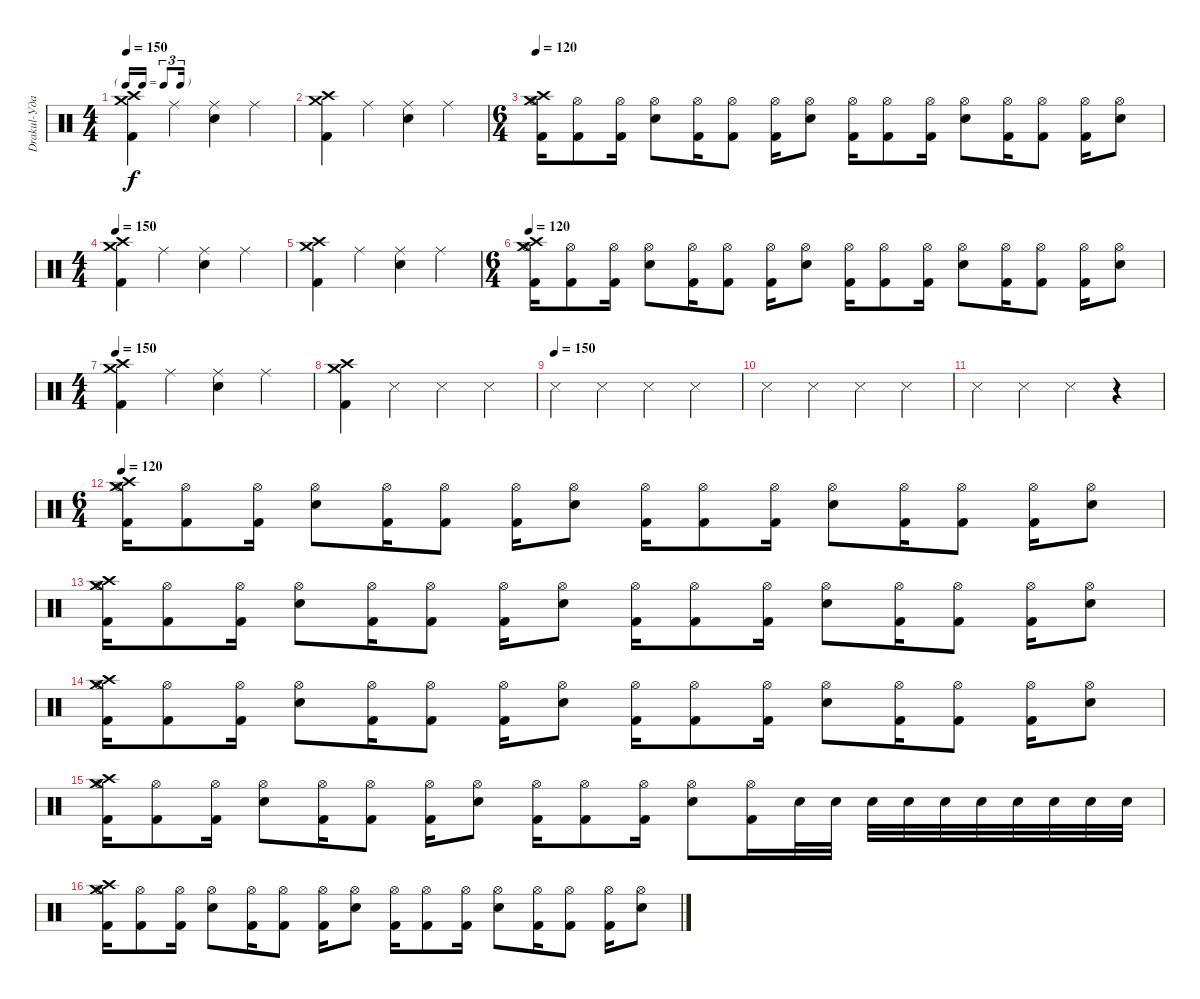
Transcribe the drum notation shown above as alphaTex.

\track ("Drakul-Ударные " "Drakul-Уда") {instrument percussion}
\staff {score}
\articulation defaults
\ts (4 4)
\tf triplet16th
\tempo 150
\clef neutral
\ks c
("Kick (hit) 2" "Crash high (hit)" "Crash medium (hit)").4{dy f} "Ride (middle)".4 ("Electric Snare (hit)" "Ride (middle)").4 "Ride (middle)".4 |
("Kick (hit) 2" "Crash high (hit)" "Crash medium (hit)").4 "Ride (middle)".4 ("Electric Snare (hit)" "Ride (middle)").4 "Ride (middle)".4 |
\ts (6 4)
\tempo 120
("Kick (hit) 2" "Hi-Hat (open)" "Crash high (hit)" "Crash medium (hit)").16 ("Kick (hit) 2" "Hi-Hat (open)").8 ("Kick (hit) 2" "Hi-Hat (open)").16 ("Electric Snare (hit)" "Hi-Hat (open)").8 ("Kick (hit) 2" "Hi-Hat (open)").16 ("Kick (hit) 2" "Hi-Hat (open)").8 ("Kick (hit) 2" "Hi-Hat (open)").16 ("Electric Snare (hit)" "Hi-Hat (open)").8 ("Kick (hit) 2" "Hi-Hat (open)").16 ("Kick (hit) 2" "Hi-Hat (open)").8 ("Kick (hit) 2" "Hi-Hat (open)").16 ("Electric Snare (hit)" "Hi-Hat (open)").8 ("Kick (hit) 2" "Hi-Hat (open)").16 ("Kick (hit) 2" "Hi-Hat (open)").8 ("Kick (hit) 2" "Hi-Hat (open)").16 ("Electric Snare (hit)" "Hi-Hat (open)").8 |
\ts (4 4)
\tempo 150
("Kick (hit) 2" "Crash high (hit)" "Crash medium (hit)").4 "Ride (middle)".4 ("Electric Snare (hit)" "Ride (middle)").4 "Ride (middle)".4 |
("Kick (hit) 2" "Crash high (hit)" "Crash medium (hit)").4 "Ride (middle)".4 ("Electric Snare (hit)" "Ride (middle)").4 "Ride (middle)".4 |
\ts (6 4)
\tempo 120
("Kick (hit) 2" "Hi-Hat (open)" "Crash high (hit)" "Crash medium (hit)").16 ("Kick (hit) 2" "Hi-Hat (open)").8 ("Kick (hit) 2" "Hi-Hat (open)").16 ("Electric Snare (hit)" "Hi-Hat (open)").8 ("Kick (hit) 2" "Hi-Hat (open)").16 ("Kick (hit) 2" "Hi-Hat (open)").8 ("Kick (hit) 2" "Hi-Hat (open)").16 ("Electric Snare (hit)" "Hi-Hat (open)").8 ("Kick (hit) 2" "Hi-Hat (open)").16 ("Kick (hit) 2" "Hi-Hat (open)").8 ("Kick (hit) 2" "Hi-Hat (open)").16 ("Electric Snare (hit)" "Hi-Hat (open)").8 ("Kick (hit) 2" "Hi-Hat (open)").16 ("Kick (hit) 2" "Hi-Hat (open)").8 ("Kick (hit) 2" "Hi-Hat (open)").16 ("Electric Snare (hit)" "Hi-Hat (open)").8 |
\ts (4 4)
\tempo 150
("Kick (hit) 2" "Crash high (hit)" "Crash medium (hit)").4 "Ride (middle)".4 ("Electric Snare (hit)" "Ride (middle)").4 "Ride (middle)".4 |
("Kick (hit) 2" "Crash high (hit)" "Crash medium (hit)").4 "Snare (side stick) 3".4 "Snare (side stick) 3".4 "Snare (side stick) 3".4 |
\tempo (150)
"Snare (side stick) 3".4 "Snare (side stick) 3".4 "Snare (side stick) 3".4 "Snare (side stick) 3".4 |
"Snare (side stick) 3".4 "Snare (side stick) 3".4 "Snare (side stick) 3".4 "Snare (side stick) 3".4 |
"Snare (side stick) 3".4 "Snare (side stick) 3".4 "Snare (side stick) 3".4 r.4 |
\ts (6 4)
\tempo 120
("Kick (hit) 2" "Hi-Hat (open)" "Crash high (hit)" "Crash medium (hit)").16 ("Kick (hit) 2" "Hi-Hat (open)").8 ("Kick (hit) 2" "Hi-Hat (open)").16 ("Electric Snare (hit)" "Hi-Hat (open)").8 ("Kick (hit) 2" "Hi-Hat (open)").16 ("Kick (hit) 2" "Hi-Hat (open)").8 ("Kick (hit) 2" "Hi-Hat (open)").16 ("Electric Snare (hit)" "Hi-Hat (open)").8 ("Kick (hit) 2" "Hi-Hat (open)").16 ("Kick (hit) 2" "Hi-Hat (open)").8 ("Kick (hit) 2" "Hi-Hat (open)").16 ("Electric Snare (hit)" "Hi-Hat (open)").8 ("Kick (hit) 2" "Hi-Hat (open)").16 ("Kick (hit) 2" "Hi-Hat (open)").8 ("Kick (hit) 2" "Hi-Hat (open)").16 ("Electric Snare (hit)" "Hi-Hat (open)").8 |
("Kick (hit) 2" "Hi-Hat (open)" "Crash high (hit)" "Crash medium (hit)").16 ("Kick (hit) 2" "Hi-Hat (open)").8 ("Kick (hit) 2" "Hi-Hat (open)").16 ("Electric Snare (hit)" "Hi-Hat (open)").8 ("Kick (hit) 2" "Hi-Hat (open)").16 ("Kick (hit) 2" "Hi-Hat (open)").8 ("Kick (hit) 2" "Hi-Hat (open)").16 ("Electric Snare (hit)" "Hi-Hat (open)").8 ("Kick (hit) 2" "Hi-Hat (open)").16 ("Kick (hit) 2" "Hi-Hat (open)").8 ("Kick (hit) 2" "Hi-Hat (open)").16 ("Electric Snare (hit)" "Hi-Hat (open)").8 ("Kick (hit) 2" "Hi-Hat (open)").16 ("Kick (hit) 2" "Hi-Hat (open)").8 ("Kick (hit) 2" "Hi-Hat (open)").16 ("Electric Snare (hit)" "Hi-Hat (open)").8 |
("Kick (hit) 2" "Hi-Hat (open)" "Crash high (hit)" "Crash medium (hit)").16 ("Kick (hit) 2" "Hi-Hat (open)").8 ("Kick (hit) 2" "Hi-Hat (open)").16 ("Electric Snare (hit)" "Hi-Hat (open)").8 ("Kick (hit) 2" "Hi-Hat (open)").16 ("Kick (hit) 2" "Hi-Hat (open)").8 ("Kick (hit) 2" "Hi-Hat (open)").16 ("Electric Snare (hit)" "Hi-Hat (open)").8 ("Kick (hit) 2" "Hi-Hat (open)").16 ("Kick (hit) 2" "Hi-Hat (open)").8 ("Kick (hit) 2" "Hi-Hat (open)").16 ("Electric Snare (hit)" "Hi-Hat (open)").8 ("Kick (hit) 2" "Hi-Hat (open)").16 ("Kick (hit) 2" "Hi-Hat (open)").8 ("Kick (hit) 2" "Hi-Hat (open)").16 ("Electric Snare (hit)" "Hi-Hat (open)").8 |
("Kick (hit) 2" "Hi-Hat (open)" "Crash high (hit)" "Crash medium (hit)").16 ("Kick (hit) 2" "Hi-Hat (open)").8 ("Kick (hit) 2" "Hi-Hat (open)").16 ("Electric Snare (hit)" "Hi-Hat (open)").8 ("Kick (hit) 2" "Hi-Hat (open)").16 ("Kick (hit) 2" "Hi-Hat (open)").8 ("Kick (hit) 2" "Hi-Hat (open)").16 ("Electric Snare (hit)" "Hi-Hat (open)").8 ("Kick (hit) 2" "Hi-Hat (open)").16 ("Kick (hit) 2" "Hi-Hat (open)").8 ("Kick (hit) 2" "Hi-Hat (open)").16 ("Electric Snare (hit)" "Hi-Hat (open)").8 ("Kick (hit) 2" "Hi-Hat (open)").16 "Electric Snare (hit)".32 "Electric Snare (hit)".32 "Electric Snare (hit)".32 "Electric Snare (hit)".32 "Electric Snare (hit)".32 "Electric Snare (hit)".32 "Electric Snare (hit)".32 "Electric Snare (hit)".32 "Electric Snare (hit)".32 "Electric Snare (hit)".32 |
("Kick (hit) 2" "Hi-Hat (open)" "Crash high (hit)" "Crash medium (hit)").16 ("Kick (hit) 2" "Hi-Hat (open)").8 ("Kick (hit) 2" "Hi-Hat (open)").16 ("Electric Snare (hit)" "Hi-Hat (open)").8 ("Kick (hit) 2" "Hi-Hat (open)").16 ("Kick (hit) 2" "Hi-Hat (open)").8 ("Kick (hit) 2" "Hi-Hat (open)").16 ("Electric Snare (hit)" "Hi-Hat (open)").8 ("Kick (hit) 2" "Hi-Hat (open)").16 ("Kick (hit) 2" "Hi-Hat (open)").8 ("Kick (hit) 2" "Hi-Hat (open)").16 ("Electric Snare (hit)" "Hi-Hat (open)").8 ("Kick (hit) 2" "Hi-Hat (open)").16 ("Kick (hit) 2" "Hi-Hat (open)").8 ("Kick (hit) 2" "Hi-Hat (open)").16 ("Electric Snare (hit)" "Hi-Hat (open)").8
